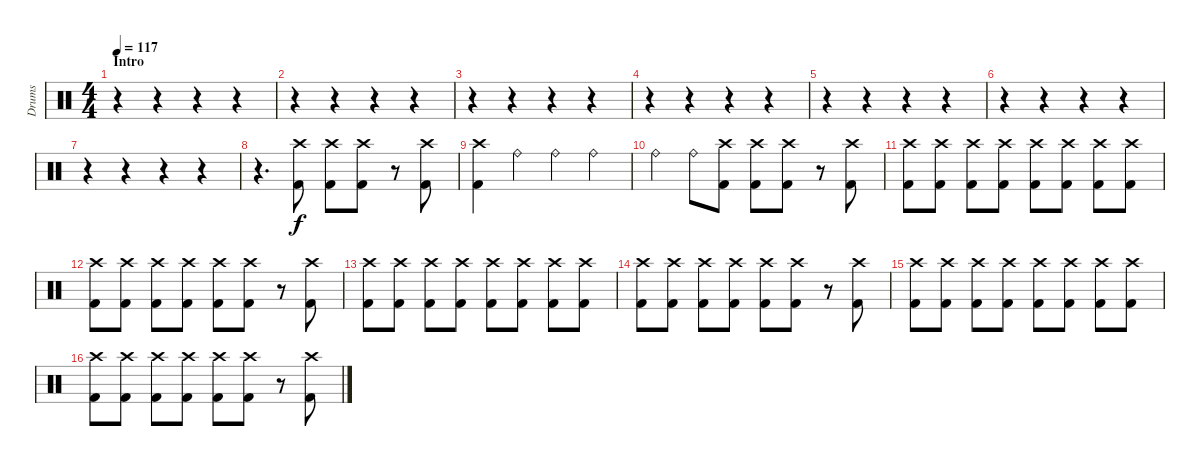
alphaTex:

\track ("Drums" "Drums") {instrument percussion}
\staff {score}
\articulation defaults
\ts (4 4)
\section ("" "Intro")
\tempo 117
\clef neutral
\ks c
r.4{dy f} r.4 r.4 r.4 |
r.4 r.4 r.4 r.4 |
r.4 r.4 r.4 r.4 |
r.4 r.4 r.4 r.4 |
r.4 r.4 r.4 r.4 |
r.4 r.4 r.4 r.4 |
r.4 r.4 r.4 r.4 |
r.4{d} ("Crash high (hit)" "Kick (hit) 2").8 ("Crash high (hit)" "Kick (hit) 2").8 ("Crash high (hit)" "Kick (hit) 2").8 r.8 ("Crash high (hit)" "Kick (hit) 2").8 |
("Crash high (hit)" "Kick (hit) 2").4 "Ride (bell)".4 "Ride (bell)".4 "Ride (bell)".4 |
"Ride (bell)".4 "Ride (bell)".8 ("Crash high (hit)" "Kick (hit) 2").8 ("Crash high (hit)" "Kick (hit) 2").8 ("Crash high (hit)" "Kick (hit) 2").8 r.8 ("Crash high (hit)" "Kick (hit) 2").8 |
("Crash high (hit)" "Kick (hit) 2").8 ("Crash high (hit)" "Kick (hit) 2").8 ("Crash high (hit)" "Kick (hit) 2").8 ("Crash high (hit)" "Kick (hit) 2").8 ("Crash high (hit)" "Kick (hit) 2").8 ("Crash high (hit)" "Kick (hit) 2").8 ("Crash high (hit)" "Kick (hit) 2").8 ("Crash high (hit)" "Kick (hit) 2").8 |
("Crash high (hit)" "Kick (hit) 2").8 ("Crash high (hit)" "Kick (hit) 2").8 ("Crash high (hit)" "Kick (hit) 2").8 ("Crash high (hit)" "Kick (hit) 2").8 ("Crash high (hit)" "Kick (hit) 2").8 ("Crash high (hit)" "Kick (hit) 2").8 r.8 ("Crash high (hit)" "Kick (hit) 2").8 |
("Crash high (hit)" "Kick (hit) 2").8 ("Crash high (hit)" "Kick (hit) 2").8 ("Crash high (hit)" "Kick (hit) 2").8 ("Crash high (hit)" "Kick (hit) 2").8 ("Crash high (hit)" "Kick (hit) 2").8 ("Crash high (hit)" "Kick (hit) 2").8 ("Crash high (hit)" "Kick (hit) 2").8 ("Crash high (hit)" "Kick (hit) 2").8 |
("Crash high (hit)" "Kick (hit) 2").8 ("Crash high (hit)" "Kick (hit) 2").8 ("Crash high (hit)" "Kick (hit) 2").8 ("Crash high (hit)" "Kick (hit) 2").8 ("Crash high (hit)" "Kick (hit) 2").8 ("Crash high (hit)" "Kick (hit) 2").8 r.8 ("Crash high (hit)" "Kick (hit) 2").8 |
("Crash high (hit)" "Kick (hit) 2").8 ("Crash high (hit)" "Kick (hit) 2").8 ("Crash high (hit)" "Kick (hit) 2").8 ("Crash high (hit)" "Kick (hit) 2").8 ("Crash high (hit)" "Kick (hit) 2").8 ("Crash high (hit)" "Kick (hit) 2").8 ("Crash high (hit)" "Kick (hit) 2").8 ("Crash high (hit)" "Kick (hit) 2").8 |
("Crash high (hit)" "Kick (hit) 2").8 ("Crash high (hit)" "Kick (hit) 2").8 ("Crash high (hit)" "Kick (hit) 2").8 ("Crash high (hit)" "Kick (hit) 2").8 ("Crash high (hit)" "Kick (hit) 2").8 ("Crash high (hit)" "Kick (hit) 2").8 r.8 ("Crash high (hit)" "Kick (hit) 2").8
